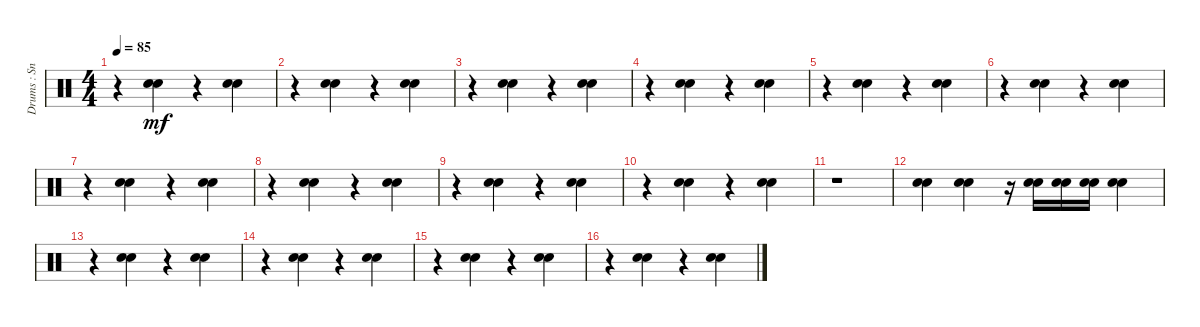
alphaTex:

\track ("Drums : Snare" "Drums : Sn") {instrument percussion}
\staff {score}
\articulation defaults
\ts (4 4)
\tempo 85
\clef neutral
\ks c
r.4{dy mf} ("Electric Snare (hit)" "Snare (hit) 2").4 r.4 ("Electric Snare (hit)" "Snare (hit) 2").4 |
r.4 ("Electric Snare (hit)" "Snare (hit) 2").4 r.4 ("Electric Snare (hit)" "Snare (hit) 2").4 |
r.4 ("Electric Snare (hit)" "Snare (hit) 2").4 r.4 ("Electric Snare (hit)" "Snare (hit) 2").4 |
r.4 ("Electric Snare (hit)" "Snare (hit) 2").4 r.4 ("Electric Snare (hit)" "Snare (hit) 2").4 |
r.4 ("Electric Snare (hit)" "Snare (hit) 2").4 r.4 ("Electric Snare (hit)" "Snare (hit) 2").4 |
r.4 ("Electric Snare (hit)" "Snare (hit) 2").4 r.4 ("Electric Snare (hit)" "Snare (hit) 2").4 |
r.4 ("Electric Snare (hit)" "Snare (hit) 2").4 r.4 ("Electric Snare (hit)" "Snare (hit) 2").4 |
r.4 ("Electric Snare (hit)" "Snare (hit) 2").4 r.4 ("Electric Snare (hit)" "Snare (hit) 2").4 |
r.4 ("Electric Snare (hit)" "Snare (hit) 2").4 r.4 ("Electric Snare (hit)" "Snare (hit) 2").4 |
r.4 ("Electric Snare (hit)" "Snare (hit) 2").4 r.4 ("Electric Snare (hit)" "Snare (hit) 2").4 |
r.1 |
("Electric Snare (hit)" "Snare (hit) 2").4 ("Electric Snare (hit)" "Snare (hit) 2").4 r.16 ("Electric Snare (hit)" "Snare (hit) 2").16 ("Electric Snare (hit)" "Snare (hit) 2").16 ("Electric Snare (hit)" "Snare (hit) 2").16 ("Electric Snare (hit)" "Snare (hit) 2").4 |
r.4 ("Electric Snare (hit)" "Snare (hit) 2").4 r.4 ("Electric Snare (hit)" "Snare (hit) 2").4 |
r.4 ("Electric Snare (hit)" "Snare (hit) 2").4 r.4 ("Electric Snare (hit)" "Snare (hit) 2").4 |
r.4 ("Electric Snare (hit)" "Snare (hit) 2").4 r.4 ("Electric Snare (hit)" "Snare (hit) 2").4 |
r.4 ("Electric Snare (hit)" "Snare (hit) 2").4 r.4 ("Electric Snare (hit)" "Snare (hit) 2").4
